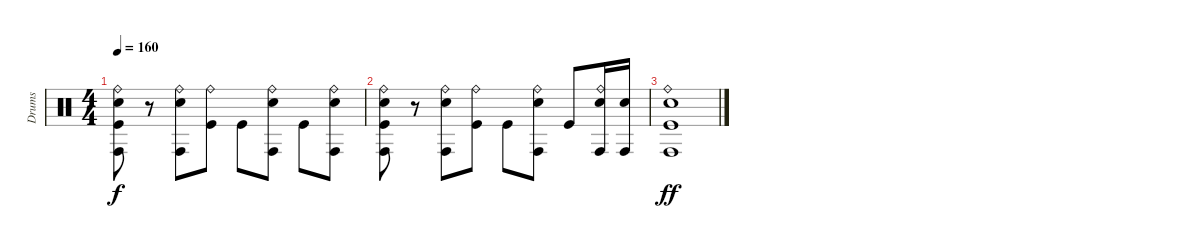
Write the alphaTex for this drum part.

\track ("Drums" "Drums") {instrument percussion}
\staff {score}
\articulation defaults
\ts (4 4)
\tempo 160
\clef neutral
\ks c
("Ride (bell)" "Conga high (hit)" "Electric Snare (hit)" "Kick (hit)").8{dy f} r.8 ("Ride (bell)" "Conga high (hit)" "Electric Snare (hit)").8 ("Ride (bell)" "Kick (hit)").8 "Kick (hit)".8 ("Ride (bell)" "Conga high (hit)" "Electric Snare (hit)").8 "Kick (hit)".8 ("Ride (bell)" "Conga high (hit)" "Electric Snare (hit)").8 |
("Ride (bell)" "Conga high (hit)" "Electric Snare (hit)" "Kick (hit)").8 r.8 ("Ride (bell)" "Conga high (hit)" "Electric Snare (hit)").8 ("Ride (bell)" "Kick (hit)").8 "Kick (hit)".8 ("Ride (bell)" "Conga high (hit)" "Electric Snare (hit)").8 "Kick (hit)".8 ("Ride (bell)" "Conga high (hit)" "Electric Snare (hit)").16 ("Conga high (hit)" "Electric Snare (hit)").16 |
("Ride (bell)" "Conga high (hit)" "Electric Snare (hit)" "Kick (hit)").1{dy ff}
